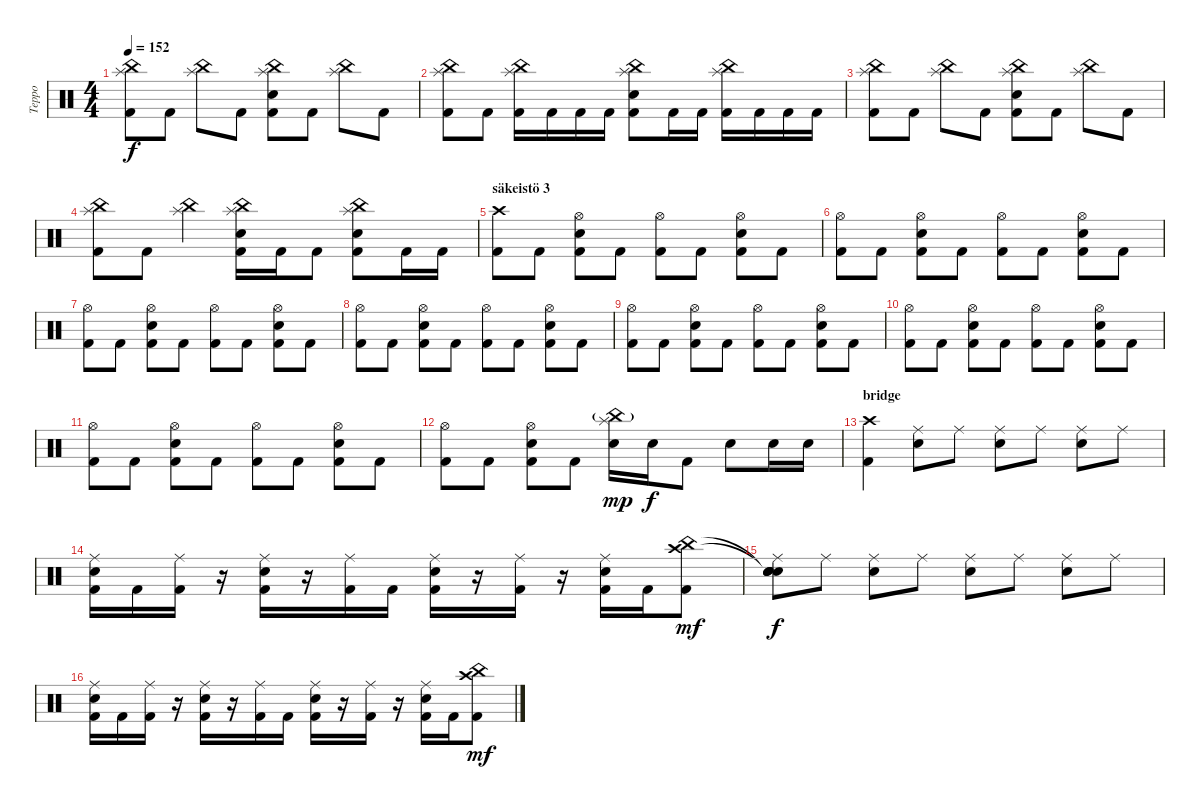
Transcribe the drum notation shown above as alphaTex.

\track ("Teppo" "Teppo") {instrument percussion}
\staff {score}
\articulation defaults
\ts (4 4)
\tempo 152
\clef neutral
\ks c
("China (hit)" "Splash (hit)" "Kick (hit) 2").8{dy f} "Kick (hit) 2".8 ("China (hit)" "Splash (hit)").8 "Kick (hit) 2".8 ("China (hit)" "Splash (hit)" "Electric Snare (hit)" "Kick (hit) 2").8 "Kick (hit) 2".8 ("China (hit)" "Splash (hit)").8 "Kick (hit) 2".8 |
("China (hit)" "Splash (hit)" "Kick (hit) 2").8 "Kick (hit) 2".8 ("China (hit)" "Splash (hit)" "Kick (hit) 2").16 "Kick (hit) 2".16 "Kick (hit) 2".16 "Kick (hit) 2".16 ("China (hit)" "Splash (hit)" "Electric Snare (hit)" "Kick (hit) 2").8 "Kick (hit) 2".16 "Kick (hit) 2".16 ("China (hit)" "Splash (hit)" "Kick (hit) 2").16 "Kick (hit) 2".16 "Kick (hit) 2".16 "Kick (hit) 2".16 |
("China (hit)" "Splash (hit)" "Kick (hit) 2").8 "Kick (hit) 2".8 ("China (hit)" "Splash (hit)").8 "Kick (hit) 2".8 ("China (hit)" "Splash (hit)" "Electric Snare (hit)" "Kick (hit) 2").8 "Kick (hit) 2".8 ("China (hit)" "Splash (hit)").8 "Kick (hit) 2".8 |
("China (hit)" "Splash (hit)" "Kick (hit) 2").8 "Kick (hit) 2".8 ("China (hit)" "Splash (hit)").4 ("China (hit)" "Splash (hit)" "Electric Snare (hit)" "Kick (hit) 2").16 "Kick (hit) 2".16 "Kick (hit) 2".8 ("China (hit)" "Splash (hit)" "Electric Snare (hit)" "Kick (hit) 2").8 "Kick (hit) 2".16 "Kick (hit) 2".16 |
\section ("" "säkeistö 3")
("Crash high (hit)" "Kick (hit) 2").8 "Kick (hit) 2".8 ("Hi-Hat (open)" "Electric Snare (hit)" "Kick (hit) 2").8 "Kick (hit) 2".8 ("Hi-Hat (open)" "Kick (hit) 2").8 "Kick (hit) 2".8 ("Hi-Hat (open)" "Electric Snare (hit)" "Kick (hit) 2").8 "Kick (hit) 2".8 |
("Hi-Hat (open)" "Kick (hit) 2").8 "Kick (hit) 2".8 ("Hi-Hat (open)" "Electric Snare (hit)" "Kick (hit) 2").8 "Kick (hit) 2".8 ("Hi-Hat (open)" "Kick (hit) 2").8 "Kick (hit) 2".8 ("Hi-Hat (open)" "Electric Snare (hit)" "Kick (hit) 2").8 "Kick (hit) 2".8 |
("Hi-Hat (open)" "Kick (hit) 2").8 "Kick (hit) 2".8 ("Hi-Hat (open)" "Electric Snare (hit)" "Kick (hit) 2").8 "Kick (hit) 2".8 ("Hi-Hat (open)" "Kick (hit) 2").8 "Kick (hit) 2".8 ("Hi-Hat (open)" "Electric Snare (hit)" "Kick (hit) 2").8 "Kick (hit) 2".8 |
("Hi-Hat (open)" "Kick (hit) 2").8 "Kick (hit) 2".8 ("Hi-Hat (open)" "Electric Snare (hit)" "Kick (hit) 2").8 "Kick (hit) 2".8 ("Hi-Hat (open)" "Kick (hit) 2").8 "Kick (hit) 2".8 ("Hi-Hat (open)" "Electric Snare (hit)" "Kick (hit) 2").8 "Kick (hit) 2".8 |
("Hi-Hat (open)" "Kick (hit) 2").8 "Kick (hit) 2".8 ("Hi-Hat (open)" "Electric Snare (hit)" "Kick (hit) 2").8 "Kick (hit) 2".8 ("Hi-Hat (open)" "Kick (hit) 2").8 "Kick (hit) 2".8 ("Hi-Hat (open)" "Electric Snare (hit)" "Kick (hit) 2").8 "Kick (hit) 2".8 |
("Hi-Hat (open)" "Kick (hit) 2").8 "Kick (hit) 2".8 ("Hi-Hat (open)" "Electric Snare (hit)" "Kick (hit) 2").8 "Kick (hit) 2".8 ("Hi-Hat (open)" "Kick (hit) 2").8 "Kick (hit) 2".8 ("Hi-Hat (open)" "Electric Snare (hit)" "Kick (hit) 2").8 "Kick (hit) 2".8 |
("Hi-Hat (open)" "Kick (hit) 2").8 "Kick (hit) 2".8 ("Hi-Hat (open)" "Electric Snare (hit)" "Kick (hit) 2").8 "Kick (hit) 2".8 ("Hi-Hat (open)" "Kick (hit) 2").8 "Kick (hit) 2".8 ("Hi-Hat (open)" "Electric Snare (hit)" "Kick (hit) 2").8 "Kick (hit) 2".8 |
("Hi-Hat (open)" "Kick (hit) 2").8 "Kick (hit) 2".8 ("Hi-Hat (open)" "Electric Snare (hit)" "Kick (hit) 2").8 "Kick (hit) 2".8 ("Splash (hit)" "China (hit)"{g} "Electric Snare (hit)").16{dy mp} "Electric Snare (hit)".16{dy f} "Kick (hit) 2".8 "Electric Snare (hit)".8 "Electric Snare (hit)".16 "Electric Snare (hit)".16 |
\section ("" "bridge")
("Crash high (hit)" "Kick (hit) 2").4 ("Ride (middle)" "Electric Snare (hit)").8 "Ride (middle)".8 ("Ride (middle)" "Electric Snare (hit)").8 "Ride (middle)".8 ("Ride (middle)" "Electric Snare (hit)").8 "Ride (middle)".8 |
("Ride (middle)" "Electric Snare (hit)" "Kick (hit) 2").16 "Kick (hit) 2".16 ("Ride (middle)" "Kick (hit) 2").16 r.16 ("Ride (middle)" "Electric Snare (hit)" "Kick (hit) 2").16 r.16 ("Ride (middle)" "Kick (hit) 2").16 "Kick (hit) 2".16 ("Ride (middle)" "Electric Snare (hit)" "Kick (hit) 2").16 r.16 ("Ride (middle)" "Kick (hit) 2").16 r.16 ("Ride (middle)" "Electric Snare (hit)" "Kick (hit) 2").16 "Kick (hit) 2".16 ("China (hit)" "Crash high (hit)" "Kick (hit) 2").8{dy mf} |
("Snare (hit)"{t} "Snare (hit)"{t} "Ride (middle)" "Electric Snare (hit)" "Snare (hit)").8{dy f} "Ride (middle)".8 ("Ride (middle)" "Electric Snare (hit)").8 "Ride (middle)".8 ("Ride (middle)" "Electric Snare (hit)").8 "Ride (middle)".8 ("Ride (middle)" "Electric Snare (hit)").8 "Ride (middle)".8 |
("Ride (middle)" "Electric Snare (hit)" "Kick (hit) 2").16 "Kick (hit) 2".16 ("Ride (middle)" "Kick (hit) 2").16 r.16 ("Ride (middle)" "Electric Snare (hit)" "Kick (hit) 2").16 r.16 ("Ride (middle)" "Kick (hit) 2").16 "Kick (hit) 2".16 ("Ride (middle)" "Electric Snare (hit)" "Kick (hit) 2").16 r.16 ("Ride (middle)" "Kick (hit) 2").16 r.16 ("Ride (middle)" "Electric Snare (hit)" "Kick (hit) 2").16 "Kick (hit) 2".16 ("China (hit)" "Crash high (hit)" "Kick (hit) 2").8{dy mf}
